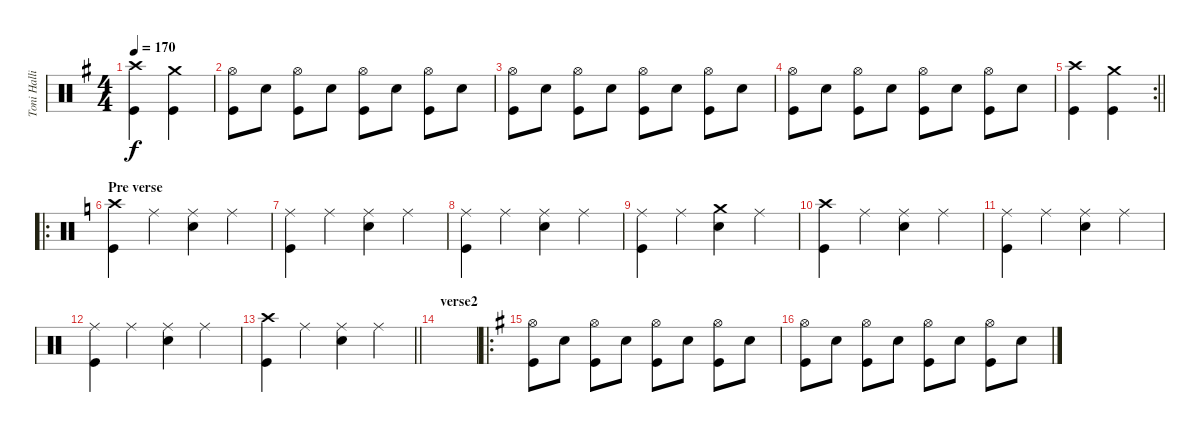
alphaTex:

\track ("Toni Hallio" "Toni Halli") {instrument percussion}
\staff {score}
\articulation defaults
\ts (4 4)
\tempo 170
\clef neutral
\ks g
("Crash high (hit)" "Kick (hit)").4{dy f} ("Crash medium (hit)" "Kick (hit)").4 |
("Hi-Hat (open)" "Kick (hit)").8 "Snare (hit) 2".8 ("Hi-Hat (open)" "Kick (hit)").8 "Snare (hit) 2".8 ("Hi-Hat (open)" "Kick (hit)").8 "Snare (hit) 2".8 ("Hi-Hat (open)" "Kick (hit)").8 "Snare (hit) 2".8 |
("Hi-Hat (open)" "Kick (hit)").8 "Snare (hit) 2".8 ("Hi-Hat (open)" "Kick (hit)").8 "Snare (hit) 2".8 ("Hi-Hat (open)" "Kick (hit)").8 "Snare (hit) 2".8 ("Hi-Hat (open)" "Kick (hit)").8 "Snare (hit) 2".8 |
("Hi-Hat (open)" "Kick (hit)").8 "Snare (hit) 2".8 ("Hi-Hat (open)" "Kick (hit)").8 "Snare (hit) 2".8 ("Hi-Hat (open)" "Kick (hit)").8 "Snare (hit) 2".8 ("Hi-Hat (open)" "Kick (hit)").8 "Snare (hit) 2".8 |
\rc 2
\barLineRight lightlight
("Crash high (hit)" "Kick (hit)").4 ("Crash medium (hit)" "Kick (hit)").4 |
\ro
\section ("" "Pre verse")
\ks c
("Crash high (hit)" "Kick (hit)").4 "Ride (middle)".4 ("Ride (middle)" "Snare (hit) 2").4 "Ride (middle)".4 |
("Ride (middle)" "Kick (hit)").4 "Ride (middle)".4 ("Ride (middle)" "Snare (hit) 2").4 "Ride (middle)".4 |
("Ride (middle)" "Kick (hit)").4 "Ride (middle)".4 ("Ride (middle)" "Snare (hit) 2").4 "Ride (middle)".4 |
("Ride (middle)" "Kick (hit)").4 "Ride (middle)".4 ("Crash medium (hit)" "Snare (hit) 2").4 "Ride (middle)".4 |
("Crash high (hit)" "Kick (hit)").4 "Ride (middle)".4 ("Ride (middle)" "Snare (hit) 2").4 "Ride (middle)".4 |
("Ride (middle)" "Kick (hit)").4 "Ride (middle)".4 ("Ride (middle)" "Snare (hit) 2").4 "Ride (middle)".4 |
("Ride (middle)" "Kick (hit)").4 "Ride (middle)".4 ("Ride (middle)" "Snare (hit) 2").4 "Ride (middle)".4 |
\barLineRight lightlight
("Crash high (hit)" "Kick (hit)").4 "Ride (middle)".4 ("Ride (middle)" "Snare (hit) 2").4 "Ride (middle)".4 |
\section ("" "verse2")
|
\ro
\ks g
("Hi-Hat (open)" "Kick (hit)").8 "Snare (hit) 2".8 ("Hi-Hat (open)" "Kick (hit)").8 "Snare (hit) 2".8 ("Hi-Hat (open)" "Kick (hit)").8 "Snare (hit) 2".8 ("Hi-Hat (open)" "Kick (hit)").8 "Snare (hit) 2".8 |
("Hi-Hat (open)" "Kick (hit)").8 "Snare (hit) 2".8 ("Hi-Hat (open)" "Kick (hit)").8 "Snare (hit) 2".8 ("Hi-Hat (open)" "Kick (hit)").8 "Snare (hit) 2".8 ("Hi-Hat (open)" "Kick (hit)").8 "Snare (hit) 2".8
